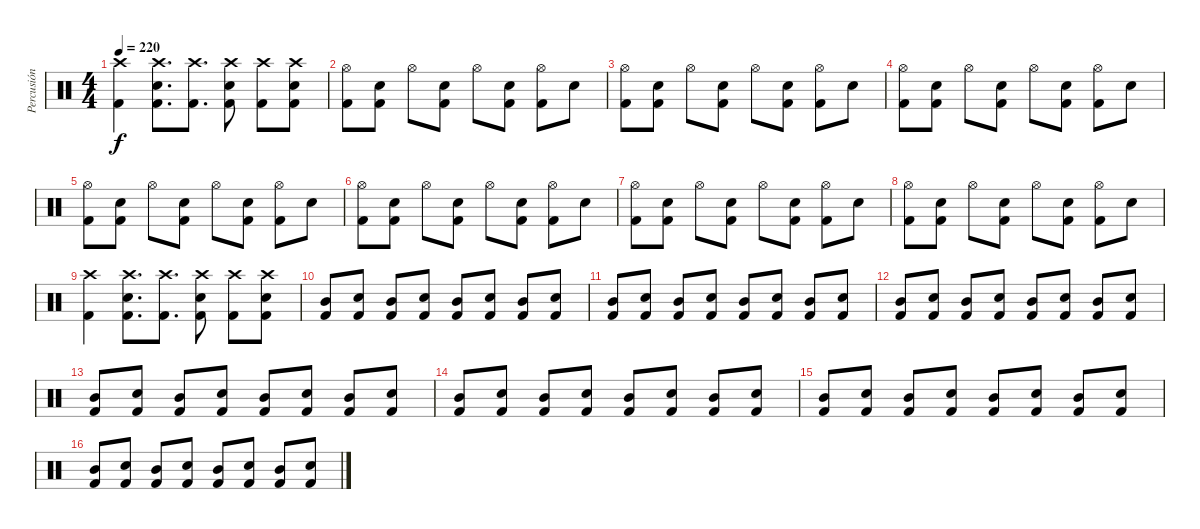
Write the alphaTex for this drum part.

\track ("Percusión" "Percusión") {instrument percussion}
\staff {score}
\articulation defaults
\ts (4 4)
\tempo 220
\clef neutral
\ks c
("Crash high (hit)" "Kick (hit) 2").4{dy f} ("Crash high (hit)" "Electric Snare (hit)" "Kick (hit) 2").8{d} ("Crash high (hit)" "Kick (hit) 2").8{d} ("Crash high (hit)" "Electric Snare (hit)" "Kick (hit) 2").8 ("Crash high (hit)" "Kick (hit) 2").8 ("Crash high (hit)" "Electric Snare (hit)" "Kick (hit) 2").8 |
("Hi-Hat (open)" "Kick (hit) 2").8 ("Electric Snare (hit)" "Kick (hit) 2").8 "Hi-Hat (open)".8 ("Electric Snare (hit)" "Kick (hit) 2").8 "Hi-Hat (open)".8 ("Electric Snare (hit)" "Kick (hit) 2").8 ("Hi-Hat (open)" "Kick (hit) 2").8 "Electric Snare (hit)".8 |
("Hi-Hat (open)" "Kick (hit) 2").8 ("Electric Snare (hit)" "Kick (hit) 2").8 "Hi-Hat (open)".8 ("Electric Snare (hit)" "Kick (hit) 2").8 "Hi-Hat (open)".8 ("Electric Snare (hit)" "Kick (hit) 2").8 ("Hi-Hat (open)" "Kick (hit) 2").8 "Electric Snare (hit)".8 |
("Hi-Hat (open)" "Kick (hit) 2").8 ("Electric Snare (hit)" "Kick (hit) 2").8 "Hi-Hat (open)".8 ("Electric Snare (hit)" "Kick (hit) 2").8 "Hi-Hat (open)".8 ("Electric Snare (hit)" "Kick (hit) 2").8 ("Hi-Hat (open)" "Kick (hit) 2").8 "Electric Snare (hit)".8 |
("Hi-Hat (open)" "Kick (hit) 2").8 ("Electric Snare (hit)" "Kick (hit) 2").8 "Hi-Hat (open)".8 ("Electric Snare (hit)" "Kick (hit) 2").8 "Hi-Hat (open)".8 ("Electric Snare (hit)" "Kick (hit) 2").8 ("Hi-Hat (open)" "Kick (hit) 2").8 "Electric Snare (hit)".8 |
("Hi-Hat (open)" "Kick (hit) 2").8 ("Electric Snare (hit)" "Kick (hit) 2").8 "Hi-Hat (open)".8 ("Electric Snare (hit)" "Kick (hit) 2").8 "Hi-Hat (open)".8 ("Electric Snare (hit)" "Kick (hit) 2").8 ("Hi-Hat (open)" "Kick (hit) 2").8 "Electric Snare (hit)".8 |
("Hi-Hat (open)" "Kick (hit) 2").8 ("Electric Snare (hit)" "Kick (hit) 2").8 "Hi-Hat (open)".8 ("Electric Snare (hit)" "Kick (hit) 2").8 "Hi-Hat (open)".8 ("Electric Snare (hit)" "Kick (hit) 2").8 ("Hi-Hat (open)" "Kick (hit) 2").8 "Electric Snare (hit)".8 |
("Hi-Hat (open)" "Kick (hit) 2").8 ("Electric Snare (hit)" "Kick (hit) 2").8 "Hi-Hat (open)".8 ("Electric Snare (hit)" "Kick (hit) 2").8 "Hi-Hat (open)".8 ("Electric Snare (hit)" "Kick (hit) 2").8 ("Hi-Hat (open)" "Kick (hit) 2").8 "Electric Snare (hit)".8 |
("Crash high (hit)" "Kick (hit) 2").4 ("Crash high (hit)" "Electric Snare (hit)" "Kick (hit) 2").8{d} ("Crash high (hit)" "Kick (hit) 2").8{d} ("Crash high (hit)" "Electric Snare (hit)" "Kick (hit) 2").8 ("Crash high (hit)" "Kick (hit) 2").8 ("Crash high (hit)" "Electric Snare (hit)" "Kick (hit) 2").8 |
("Mid Tom (hit)" "Kick (hit) 2").8 ("Electric Snare (hit)" "Kick (hit) 2").8 ("Mid Tom (hit)" "Kick (hit) 2").8 ("Electric Snare (hit)" "Kick (hit) 2").8 ("Mid Tom (hit)" "Kick (hit) 2").8 ("Electric Snare (hit)" "Kick (hit) 2").8 ("Mid Tom (hit)" "Kick (hit) 2").8 ("Electric Snare (hit)" "Kick (hit) 2").8 |
("Mid Tom (hit)" "Kick (hit) 2").8 ("Electric Snare (hit)" "Kick (hit) 2").8 ("Mid Tom (hit)" "Kick (hit) 2").8 ("Electric Snare (hit)" "Kick (hit) 2").8 ("Mid Tom (hit)" "Kick (hit) 2").8 ("Electric Snare (hit)" "Kick (hit) 2").8 ("Mid Tom (hit)" "Kick (hit) 2").8 ("Electric Snare (hit)" "Kick (hit) 2").8 |
("Mid Tom (hit)" "Kick (hit) 2").8 ("Electric Snare (hit)" "Kick (hit) 2").8 ("Mid Tom (hit)" "Kick (hit) 2").8 ("Electric Snare (hit)" "Kick (hit) 2").8 ("Mid Tom (hit)" "Kick (hit) 2").8 ("Electric Snare (hit)" "Kick (hit) 2").8 ("Mid Tom (hit)" "Kick (hit) 2").8 ("Electric Snare (hit)" "Kick (hit) 2").8 |
("Mid Tom (hit)" "Kick (hit) 2").8 ("Electric Snare (hit)" "Kick (hit) 2").8 ("Mid Tom (hit)" "Kick (hit) 2").8 ("Electric Snare (hit)" "Kick (hit) 2").8 ("Mid Tom (hit)" "Kick (hit) 2").8 ("Electric Snare (hit)" "Kick (hit) 2").8 ("Mid Tom (hit)" "Kick (hit) 2").8 ("Electric Snare (hit)" "Kick (hit) 2").8 |
("Mid Tom (hit)" "Kick (hit) 2").8 ("Electric Snare (hit)" "Kick (hit) 2").8 ("Mid Tom (hit)" "Kick (hit) 2").8 ("Electric Snare (hit)" "Kick (hit) 2").8 ("Mid Tom (hit)" "Kick (hit) 2").8 ("Electric Snare (hit)" "Kick (hit) 2").8 ("Mid Tom (hit)" "Kick (hit) 2").8 ("Electric Snare (hit)" "Kick (hit) 2").8 |
("Mid Tom (hit)" "Kick (hit) 2").8 ("Electric Snare (hit)" "Kick (hit) 2").8 ("Mid Tom (hit)" "Kick (hit) 2").8 ("Electric Snare (hit)" "Kick (hit) 2").8 ("Mid Tom (hit)" "Kick (hit) 2").8 ("Electric Snare (hit)" "Kick (hit) 2").8 ("Mid Tom (hit)" "Kick (hit) 2").8 ("Electric Snare (hit)" "Kick (hit) 2").8 |
("Mid Tom (hit)" "Kick (hit) 2").8 ("Electric Snare (hit)" "Kick (hit) 2").8 ("Mid Tom (hit)" "Kick (hit) 2").8 ("Electric Snare (hit)" "Kick (hit) 2").8 ("Mid Tom (hit)" "Kick (hit) 2").8 ("Electric Snare (hit)" "Kick (hit) 2").8 ("Mid Tom (hit)" "Kick (hit) 2").8 ("Electric Snare (hit)" "Kick (hit) 2").8
